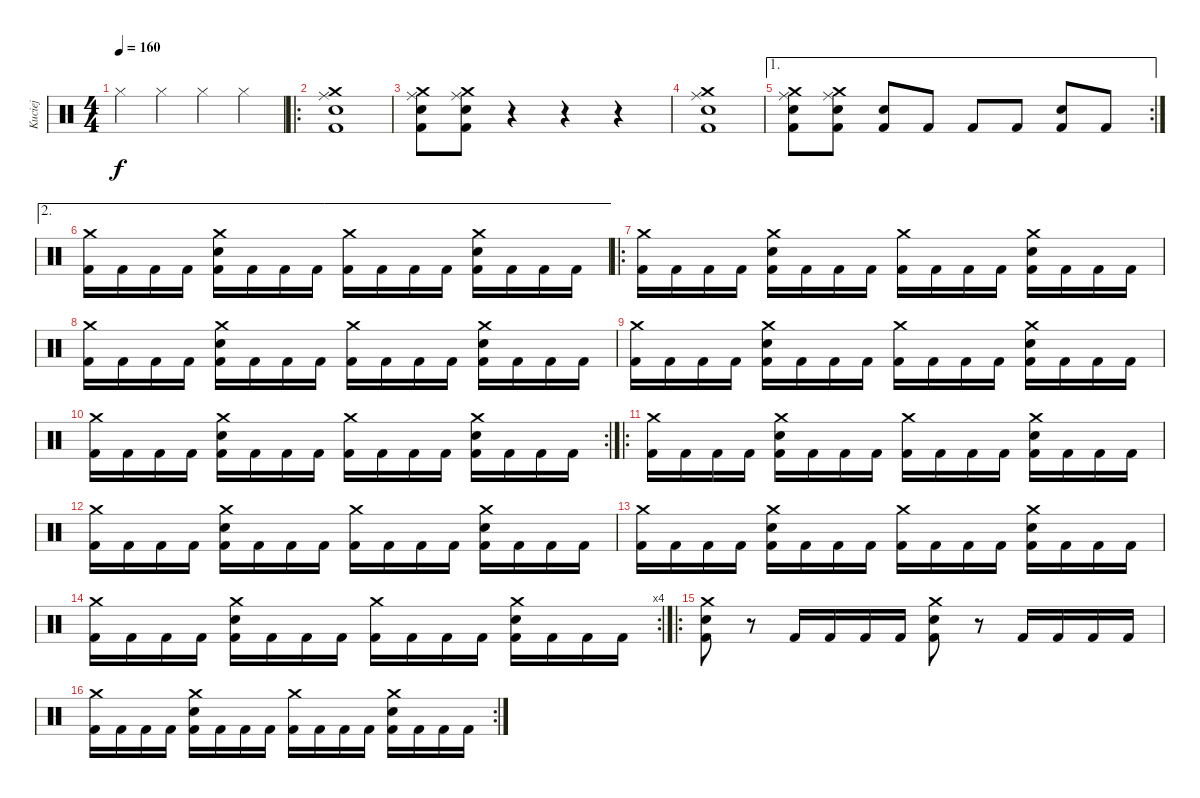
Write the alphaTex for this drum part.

\track ("Kuciej" "Kuciej") {instrument percussion}
\staff {score}
\articulation defaults
\ts (4 4)
\tempo 160
\clef neutral
\ks c "Hi-Hat (closed)".4{dy f} "Hi-Hat (closed)".4 "Hi-Hat (closed)".4 "Hi-Hat (closed)".4
|
\ro
("Ride (middle)" "Crash medium (hit)" "Electric Snare (hit)" "Kick (hit) 2").1 |
("Ride (middle)" "Crash medium (hit)" "Electric Snare (hit)" "Kick (hit) 2").8 ("Ride (middle)" "Crash medium (hit)" "Electric Snare (hit)" "Kick (hit) 2").8 r.4 r.4 r.4 |
("Ride (middle)" "Crash medium (hit)" "Electric Snare (hit)" "Kick (hit) 2").1 |
\ae 1
\rc 2
("Ride (middle)" "Crash medium (hit)" "Electric Snare (hit)" "Kick (hit) 2").8 ("Ride (middle)" "Crash medium (hit)" "Electric Snare (hit)" "Kick (hit) 2").8 ("Electric Snare (hit)" "Kick (hit) 2").8 "Kick (hit) 2".8 "Kick (hit) 2".8 "Kick (hit) 2".8 ("Electric Snare (hit)" "Kick (hit) 2").8 "Kick (hit) 2".8 |
\ae 2
("Crash medium (hit)" "Kick (hit) 2").16 "Kick (hit) 2".16 "Kick (hit) 2".16 "Kick (hit) 2".16 ("Crash medium (hit)" "Electric Snare (hit)" "Kick (hit) 2").16 "Kick (hit) 2".16 "Kick (hit) 2".16 "Kick (hit) 2".16 ("Crash medium (hit)" "Kick (hit) 2").16 "Kick (hit) 2".16 "Kick (hit) 2".16 "Kick (hit) 2".16 ("Crash medium (hit)" "Electric Snare (hit)" "Kick (hit) 2").16 "Kick (hit) 2".16 "Kick (hit) 2".16 "Kick (hit) 2".16 |
\ro
("Crash medium (hit)" "Kick (hit) 2").16 "Kick (hit) 2".16 "Kick (hit) 2".16 "Kick (hit) 2".16 ("Crash medium (hit)" "Electric Snare (hit)" "Kick (hit) 2").16 "Kick (hit) 2".16 "Kick (hit) 2".16 "Kick (hit) 2".16 ("Crash medium (hit)" "Kick (hit) 2").16 "Kick (hit) 2".16 "Kick (hit) 2".16 "Kick (hit) 2".16 ("Crash medium (hit)" "Electric Snare (hit)" "Kick (hit) 2").16 "Kick (hit) 2".16 "Kick (hit) 2".16 "Kick (hit) 2".16 |
("Crash medium (hit)" "Kick (hit) 2").16 "Kick (hit) 2".16 "Kick (hit) 2".16 "Kick (hit) 2".16 ("Crash medium (hit)" "Electric Snare (hit)" "Kick (hit) 2").16 "Kick (hit) 2".16 "Kick (hit) 2".16 "Kick (hit) 2".16 ("Crash medium (hit)" "Kick (hit) 2").16 "Kick (hit) 2".16 "Kick (hit) 2".16 "Kick (hit) 2".16 ("Crash medium (hit)" "Electric Snare (hit)" "Kick (hit) 2").16 "Kick (hit) 2".16 "Kick (hit) 2".16 "Kick (hit) 2".16 |
("Crash medium (hit)" "Kick (hit) 2").16 "Kick (hit) 2".16 "Kick (hit) 2".16 "Kick (hit) 2".16 ("Crash medium (hit)" "Electric Snare (hit)" "Kick (hit) 2").16 "Kick (hit) 2".16 "Kick (hit) 2".16 "Kick (hit) 2".16 ("Crash medium (hit)" "Kick (hit) 2").16 "Kick (hit) 2".16 "Kick (hit) 2".16 "Kick (hit) 2".16 ("Crash medium (hit)" "Electric Snare (hit)" "Kick (hit) 2").16 "Kick (hit) 2".16 "Kick (hit) 2".16 "Kick (hit) 2".16 |
\rc 2
("Crash medium (hit)" "Kick (hit) 2").16 "Kick (hit) 2".16 "Kick (hit) 2".16 "Kick (hit) 2".16 ("Crash medium (hit)" "Electric Snare (hit)" "Kick (hit) 2").16 "Kick (hit) 2".16 "Kick (hit) 2".16 "Kick (hit) 2".16 ("Crash medium (hit)" "Kick (hit) 2").16 "Kick (hit) 2".16 "Kick (hit) 2".16 "Kick (hit) 2".16 ("Crash medium (hit)" "Electric Snare (hit)" "Kick (hit) 2").16 "Kick (hit) 2".16 "Kick (hit) 2".16 "Kick (hit) 2".16 |
\ro
("Crash medium (hit)" "Kick (hit) 2").16 "Kick (hit) 2".16 "Kick (hit) 2".16 "Kick (hit) 2".16 ("Crash medium (hit)" "Electric Snare (hit)" "Kick (hit) 2").16 "Kick (hit) 2".16 "Kick (hit) 2".16 "Kick (hit) 2".16 ("Crash medium (hit)" "Kick (hit) 2").16 "Kick (hit) 2".16 "Kick (hit) 2".16 "Kick (hit) 2".16 ("Crash medium (hit)" "Electric Snare (hit)" "Kick (hit) 2").16 "Kick (hit) 2".16 "Kick (hit) 2".16 "Kick (hit) 2".16 |
("Crash medium (hit)" "Kick (hit) 2").16 "Kick (hit) 2".16 "Kick (hit) 2".16 "Kick (hit) 2".16 ("Crash medium (hit)" "Electric Snare (hit)" "Kick (hit) 2").16 "Kick (hit) 2".16 "Kick (hit) 2".16 "Kick (hit) 2".16 ("Crash medium (hit)" "Kick (hit) 2").16 "Kick (hit) 2".16 "Kick (hit) 2".16 "Kick (hit) 2".16 ("Crash medium (hit)" "Electric Snare (hit)" "Kick (hit) 2").16 "Kick (hit) 2".16 "Kick (hit) 2".16 "Kick (hit) 2".16 |
("Crash medium (hit)" "Kick (hit) 2").16 "Kick (hit) 2".16 "Kick (hit) 2".16 "Kick (hit) 2".16 ("Crash medium (hit)" "Electric Snare (hit)" "Kick (hit) 2").16 "Kick (hit) 2".16 "Kick (hit) 2".16 "Kick (hit) 2".16 ("Crash medium (hit)" "Kick (hit) 2").16 "Kick (hit) 2".16 "Kick (hit) 2".16 "Kick (hit) 2".16 ("Crash medium (hit)" "Electric Snare (hit)" "Kick (hit) 2").16 "Kick (hit) 2".16 "Kick (hit) 2".16 "Kick (hit) 2".16 |
\rc 4
("Crash medium (hit)" "Kick (hit) 2").16 "Kick (hit) 2".16 "Kick (hit) 2".16 "Kick (hit) 2".16 ("Crash medium (hit)" "Electric Snare (hit)" "Kick (hit) 2").16 "Kick (hit) 2".16 "Kick (hit) 2".16 "Kick (hit) 2".16 ("Crash medium (hit)" "Kick (hit) 2").16 "Kick (hit) 2".16 "Kick (hit) 2".16 "Kick (hit) 2".16 ("Crash medium (hit)" "Electric Snare (hit)" "Kick (hit) 2").16 "Kick (hit) 2".16 "Kick (hit) 2".16 "Kick (hit) 2".16 |
\ro
("Crash medium (hit)" "Electric Snare (hit)" "Kick (hit) 2").8 r.8 "Kick (hit) 2".16 "Kick (hit) 2".16 "Kick (hit) 2".16 "Kick (hit) 2".16 ("Crash medium (hit)" "Electric Snare (hit)" "Kick (hit) 2").8 r.8 "Kick (hit) 2".16 "Kick (hit) 2".16 "Kick (hit) 2".16 "Kick (hit) 2".16 |
\rc 2
("Crash medium (hit)" "Kick (hit) 2").16 "Kick (hit) 2".16 "Kick (hit) 2".16 "Kick (hit) 2".16 ("Crash medium (hit)" "Electric Snare (hit)" "Kick (hit) 2").16 "Kick (hit) 2".16 "Kick (hit) 2".16 "Kick (hit) 2".16 ("Crash medium (hit)" "Kick (hit) 2").16 "Kick (hit) 2".16 "Kick (hit) 2".16 "Kick (hit) 2".16 ("Crash medium (hit)" "Electric Snare (hit)" "Kick (hit) 2").16 "Kick (hit) 2".16 "Kick (hit) 2".16 "Kick (hit) 2".16
